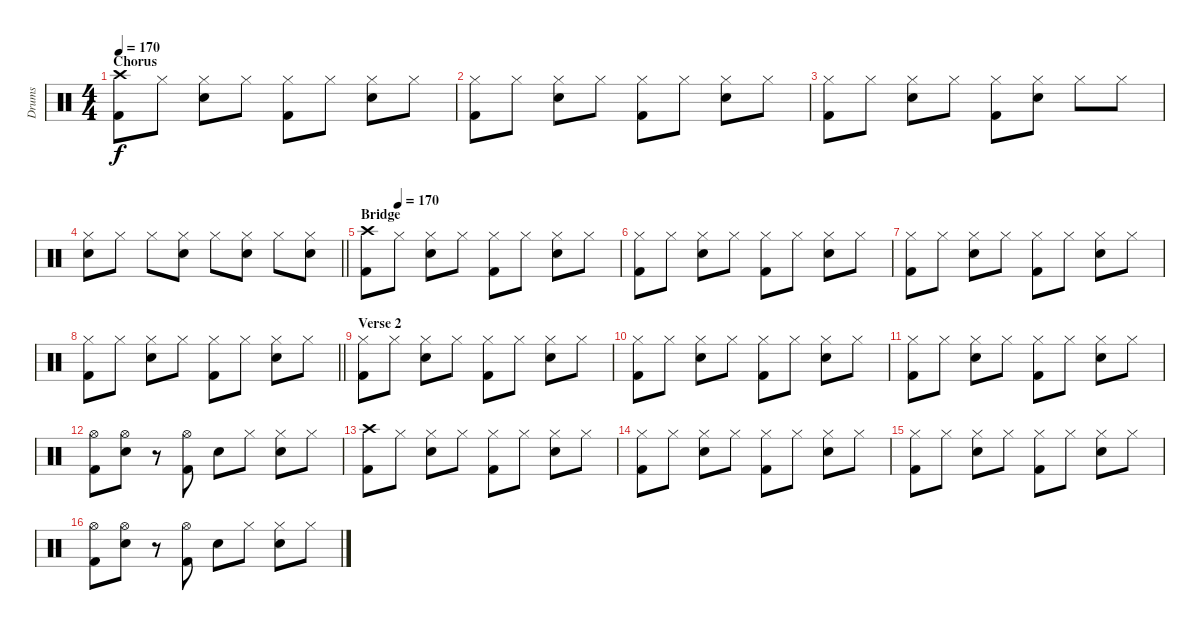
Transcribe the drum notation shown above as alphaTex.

\track ("Drums" "Drums") {instrument percussion}
\staff {score}
\articulation defaults
\ts (4 4)
\section ("" "Chorus")
\tempo 170
\clef neutral
\ks c
("Crash high (hit)" "Kick (hit) 2").8{dy f} "Hi-Hat (closed)".8 ("Hi-Hat (closed)" "Snare (hit) 2").8 "Hi-Hat (closed)".8 ("Hi-Hat (closed)" "Kick (hit) 2").8 "Hi-Hat (closed)".8 ("Hi-Hat (closed)" "Snare (hit) 2").8 "Hi-Hat (closed)".8 |
("Hi-Hat (closed)" "Kick (hit) 2").8 "Hi-Hat (closed)".8 ("Hi-Hat (closed)" "Snare (hit) 2").8 "Hi-Hat (closed)".8 ("Hi-Hat (closed)" "Kick (hit) 2").8 "Hi-Hat (closed)".8 ("Hi-Hat (closed)" "Snare (hit) 2").8 "Hi-Hat (closed)".8 |
("Hi-Hat (closed)" "Kick (hit) 2").8 "Hi-Hat (closed)".8 ("Hi-Hat (closed)" "Snare (hit) 2").8 "Hi-Hat (closed)".8 ("Hi-Hat (closed)" "Kick (hit) 2").8 ("Hi-Hat (closed)" "Snare (hit) 2").8 "Hi-Hat (closed)".8 "Hi-Hat (closed)".8 |
\barLineRight lightlight
("Hi-Hat (closed)" "Snare (hit) 2").8 "Hi-Hat (closed)".8 "Hi-Hat (closed)".8 ("Hi-Hat (closed)" "Snare (hit) 2").8 "Hi-Hat (closed)".8 ("Hi-Hat (closed)" "Snare (hit) 2").8 "Hi-Hat (closed)".8 ("Hi-Hat (closed)" "Snare (hit) 2").8 |
\section ("" "Bridge")
\tempo (170 0.125)
("Crash high (hit)" "Kick (hit) 2").8 "Hi-Hat (closed)".8 ("Hi-Hat (closed)" "Snare (hit) 2").8 "Hi-Hat (closed)".8 ("Hi-Hat (closed)" "Kick (hit) 2").8 "Hi-Hat (closed)".8 ("Hi-Hat (closed)" "Snare (hit) 2").8 "Hi-Hat (closed)".8 |
("Hi-Hat (closed)" "Kick (hit) 2").8 "Hi-Hat (closed)".8 ("Hi-Hat (closed)" "Snare (hit) 2").8 "Hi-Hat (closed)".8 ("Hi-Hat (closed)" "Kick (hit) 2").8 "Hi-Hat (closed)".8 ("Hi-Hat (closed)" "Snare (hit) 2").8 "Hi-Hat (closed)".8 |
("Hi-Hat (closed)" "Kick (hit) 2").8 "Hi-Hat (closed)".8 ("Hi-Hat (closed)" "Snare (hit) 2").8 "Hi-Hat (closed)".8 ("Hi-Hat (closed)" "Kick (hit) 2").8 "Hi-Hat (closed)".8 ("Hi-Hat (closed)" "Snare (hit) 2").8 "Hi-Hat (closed)".8 |
\barLineRight lightlight
("Hi-Hat (closed)" "Kick (hit) 2").8 "Hi-Hat (closed)".8 ("Hi-Hat (closed)" "Snare (hit) 2").8 "Hi-Hat (closed)".8 ("Hi-Hat (closed)" "Kick (hit) 2").8 "Hi-Hat (closed)".8 ("Hi-Hat (closed)" "Snare (hit) 2").8 "Hi-Hat (closed)".8 |
\section ("" "Verse 2")
("Hi-Hat (closed)" "Kick (hit) 2").8 "Hi-Hat (closed)".8 ("Hi-Hat (closed)" "Snare (hit) 2").8 "Hi-Hat (closed)".8 ("Hi-Hat (closed)" "Kick (hit) 2").8 "Hi-Hat (closed)".8 ("Hi-Hat (closed)" "Snare (hit) 2").8 "Hi-Hat (closed)".8 |
("Hi-Hat (closed)" "Kick (hit) 2").8 "Hi-Hat (closed)".8 ("Hi-Hat (closed)" "Snare (hit) 2").8 "Hi-Hat (closed)".8 ("Hi-Hat (closed)" "Kick (hit) 2").8 "Hi-Hat (closed)".8 ("Hi-Hat (closed)" "Snare (hit) 2").8 "Hi-Hat (closed)".8 |
("Hi-Hat (closed)" "Kick (hit) 2").8 "Hi-Hat (closed)".8 ("Hi-Hat (closed)" "Snare (hit) 2").8 "Hi-Hat (closed)".8 ("Hi-Hat (closed)" "Kick (hit) 2").8 "Hi-Hat (closed)".8 ("Hi-Hat (closed)" "Snare (hit) 2").8 "Hi-Hat (closed)".8 |
("Hi-Hat (open)" "Kick (hit) 2").8 ("Hi-Hat (open)" "Snare (hit) 2").8 r.8 ("Hi-Hat (open)" "Kick (hit) 2").8 "Snare (hit) 2".8 "Hi-Hat (closed)".8 ("Hi-Hat (closed)" "Snare (hit) 2").8 "Hi-Hat (closed)".8 |
("Crash high (hit)" "Kick (hit) 2").8 "Hi-Hat (closed)".8 ("Hi-Hat (closed)" "Snare (hit) 2").8 "Hi-Hat (closed)".8 ("Hi-Hat (closed)" "Kick (hit) 2").8 "Hi-Hat (closed)".8 ("Hi-Hat (closed)" "Snare (hit) 2").8 "Hi-Hat (closed)".8 |
("Hi-Hat (closed)" "Kick (hit) 2").8 "Hi-Hat (closed)".8 ("Hi-Hat (closed)" "Snare (hit) 2").8 "Hi-Hat (closed)".8 ("Hi-Hat (closed)" "Kick (hit) 2").8 "Hi-Hat (closed)".8 ("Hi-Hat (closed)" "Snare (hit) 2").8 "Hi-Hat (closed)".8 |
("Hi-Hat (closed)" "Kick (hit) 2").8 "Hi-Hat (closed)".8 ("Hi-Hat (closed)" "Snare (hit) 2").8 "Hi-Hat (closed)".8 ("Hi-Hat (closed)" "Kick (hit) 2").8 "Hi-Hat (closed)".8 ("Hi-Hat (closed)" "Snare (hit) 2").8 "Hi-Hat (closed)".8 |
("Hi-Hat (open)" "Kick (hit) 2").8 ("Hi-Hat (open)" "Snare (hit) 2").8 r.8 ("Hi-Hat (open)" "Kick (hit) 2").8 "Snare (hit) 2".8 "Hi-Hat (closed)".8 ("Hi-Hat (closed)" "Snare (hit) 2").8 "Hi-Hat (closed)".8
